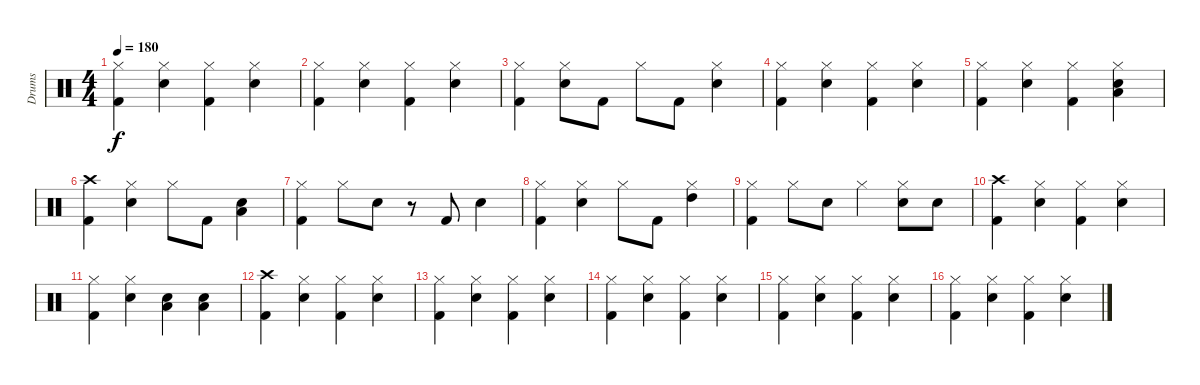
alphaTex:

\track ("Drums" "Drums") {instrument percussion}
\staff {score}
\articulation defaults
\ts (4 4)
\tempo 180
\clef neutral
\ks c
("Hi-Hat (closed)" "Kick (hit) 2").4{dy f} ("Hi-Hat (closed)" "Snare (hit) 2").4 ("Hi-Hat (closed)" "Kick (hit) 2").4 ("Hi-Hat (closed)" "Snare (hit) 2").4 |
("Hi-Hat (closed)" "Kick (hit) 2").4 ("Hi-Hat (closed)" "Snare (hit) 2").4 ("Hi-Hat (closed)" "Kick (hit) 2").4 ("Hi-Hat (closed)" "Snare (hit) 2").4 |
("Hi-Hat (closed)" "Kick (hit) 2").4 ("Hi-Hat (closed)" "Snare (hit) 2").8 "Kick (hit) 2".8 "Hi-Hat (closed)".8 "Kick (hit) 2".8 ("Hi-Hat (closed)" "Snare (hit) 2").4 |
("Hi-Hat (closed)" "Kick (hit) 2").4 ("Hi-Hat (closed)" "Snare (hit) 2").4 ("Hi-Hat (closed)" "Kick (hit) 2").4 ("Hi-Hat (closed)" "Snare (hit) 2").4 |
("Hi-Hat (closed)" "Kick (hit) 2").4 ("Hi-Hat (closed)" "Snare (hit) 2").4 ("Hi-Hat (closed)" "Kick (hit) 2").4 ("Hi-Hat (closed)" "Snare (hit) 2" "Low Tom (hit)").4 |
("Crash high (hit)" "Kick (hit) 2").4 ("Hi-Hat (closed)" "Snare (hit) 2").4 "Hi-Hat (closed)".8 "Kick (hit) 2".8 ("Snare (hit) 2" "Low Tom (hit)").4 |
("Hi-Hat (closed)" "Kick (hit) 2").4 "Hi-Hat (closed)".8 "Snare (hit) 2".8 r.8 "Kick (hit) 2".8 "Snare (hit) 2".4 |
("Hi-Hat (closed)" "Kick (hit) 2").4 ("Hi-Hat (closed)" "Snare (hit) 2").4 "Hi-Hat (closed)".8 "Kick (hit) 2".8 ("Hi-Hat (closed)" "High Tom (hit)").4 |
("Hi-Hat (closed)" "Kick (hit) 2").4 "Hi-Hat (closed)".8 "Snare (hit) 2".8 "Hi-Hat (closed)".4 ("Hi-Hat (closed)" "Snare (hit) 2").8 "Snare (hit) 2".8 |
("Crash high (hit)" "Kick (hit) 2").4 ("Hi-Hat (closed)" "Snare (hit) 2").4 ("Hi-Hat (closed)" "Kick (hit) 2").4 ("Hi-Hat (closed)" "Snare (hit) 2").4 |
("Hi-Hat (closed)" "Kick (hit) 2").4 ("Hi-Hat (closed)" "Snare (hit) 2").4 ("Snare (hit) 2" "Low Tom (hit)").4 ("Snare (hit) 2" "Low Tom (hit)").4 |
("Crash high (hit)" "Kick (hit) 2").4 ("Hi-Hat (closed)" "Snare (hit) 2").4 ("Hi-Hat (closed)" "Kick (hit) 2").4 ("Hi-Hat (closed)" "Snare (hit) 2").4 |
("Hi-Hat (closed)" "Kick (hit) 2").4 ("Hi-Hat (closed)" "Snare (hit) 2").4 ("Hi-Hat (closed)" "Kick (hit) 2").4 ("Hi-Hat (closed)" "Snare (hit) 2").4 |
("Hi-Hat (closed)" "Kick (hit) 2").4 ("Hi-Hat (closed)" "Snare (hit) 2").4 ("Hi-Hat (closed)" "Kick (hit) 2").4 ("Hi-Hat (closed)" "Snare (hit) 2").4 |
("Hi-Hat (closed)" "Kick (hit) 2").4 ("Hi-Hat (closed)" "Snare (hit) 2").4 ("Hi-Hat (closed)" "Kick (hit) 2").4 ("Hi-Hat (closed)" "Snare (hit) 2").4 |
("Hi-Hat (closed)" "Kick (hit) 2").4 ("Hi-Hat (closed)" "Snare (hit) 2").4 ("Hi-Hat (closed)" "Kick (hit) 2").4 ("Hi-Hat (closed)" "Snare (hit) 2").4
